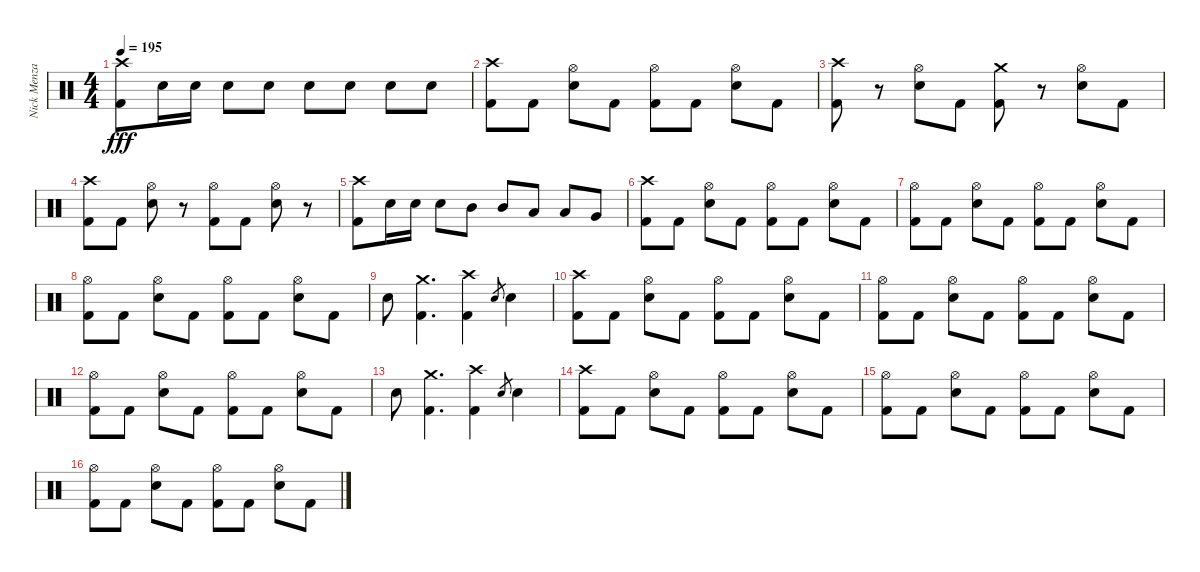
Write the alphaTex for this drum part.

\track ("Nick Menza (Drums)" "Nick Menza") {instrument percussion}
\staff {score}
\articulation defaults
\ts (4 4)
\tempo 195
\clef neutral
\ks c
("Kick (hit) 2" "Crash high (hit)").8{dy fff} "Electric Snare (hit)".16 "Electric Snare (hit)".16 "Electric Snare (hit)".8 "Electric Snare (hit)".8 "Electric Snare (hit)".8 "Electric Snare (hit)".8 "Electric Snare (hit)".8 "Electric Snare (hit)".8 |
("Kick (hit) 2" "Crash high (hit)").8 "Kick (hit) 2".8 ("Electric Snare (hit)" "Hi-Hat (open)").8 "Kick (hit) 2".8 ("Kick (hit) 2" "Hi-Hat (open)").8 "Kick (hit) 2".8 ("Electric Snare (hit)" "Hi-Hat (open)").8 "Kick (hit) 2".8 |
("Kick (hit) 2" "Crash high (hit)").8 r.8 ("Electric Snare (hit)" "Hi-Hat (open)").8 "Kick (hit) 2".8 ("Kick (hit) 2" "Crash medium (hit)").8 r.8 ("Electric Snare (hit)" "Hi-Hat (open)").8 "Kick (hit) 2".8 |
("Kick (hit) 2" "Crash high (hit)").8 "Kick (hit) 2".8 ("Electric Snare (hit)" "Hi-Hat (open)").8 r.8 ("Kick (hit) 2" "Hi-Hat (open)").8 "Kick (hit) 2".8 ("Electric Snare (hit)" "Hi-Hat (open)").8 r.8 |
("Kick (hit) 2" "Crash high (hit)").8 "Electric Snare (hit)".16 "Electric Snare (hit)".16 "Electric Snare (hit)".8 "Mid Tom (hit)".8 "Mid Tom (hit)".8 "Low Tom (hit)".8 "Low Tom (hit)".8 "Very Low Tom (hit)".8 |
("Kick (hit) 2" "Crash high (hit)").8 "Kick (hit) 2".8 ("Electric Snare (hit)" "Hi-Hat (open)").8 "Kick (hit) 2".8 ("Kick (hit) 2" "Hi-Hat (open)").8 "Kick (hit) 2".8 ("Electric Snare (hit)" "Hi-Hat (open)").8 "Kick (hit) 2".8 |
("Kick (hit) 2" "Hi-Hat (open)").8 "Kick (hit) 2".8 ("Electric Snare (hit)" "Hi-Hat (open)").8 "Kick (hit) 2".8 ("Kick (hit) 2" "Hi-Hat (open)").8 "Kick (hit) 2".8 ("Electric Snare (hit)" "Hi-Hat (open)").8 "Kick (hit) 2".8 |
("Kick (hit) 2" "Hi-Hat (open)").8 "Kick (hit) 2".8 ("Electric Snare (hit)" "Hi-Hat (open)").8 "Kick (hit) 2".8 ("Kick (hit) 2" "Hi-Hat (open)").8 "Kick (hit) 2".8 ("Electric Snare (hit)" "Hi-Hat (open)").8 "Kick (hit) 2".8 |
"Electric Snare (hit)".8 ("Kick (hit) 2" "Crash medium (hit)").4{d} ("Kick (hit) 2" "Crash high (hit)").4 "Electric Snare (hit)".8{gr} "Electric Snare (hit)".4 |
("Kick (hit) 2" "Crash high (hit)").8 "Kick (hit) 2".8 ("Electric Snare (hit)" "Hi-Hat (open)").8 "Kick (hit) 2".8 ("Kick (hit) 2" "Hi-Hat (open)").8 "Kick (hit) 2".8 ("Electric Snare (hit)" "Hi-Hat (open)").8 "Kick (hit) 2".8 |
("Kick (hit) 2" "Hi-Hat (open)").8 "Kick (hit) 2".8 ("Electric Snare (hit)" "Hi-Hat (open)").8 "Kick (hit) 2".8 ("Kick (hit) 2" "Hi-Hat (open)").8 "Kick (hit) 2".8 ("Electric Snare (hit)" "Hi-Hat (open)").8 "Kick (hit) 2".8 |
("Kick (hit) 2" "Hi-Hat (open)").8 "Kick (hit) 2".8 ("Electric Snare (hit)" "Hi-Hat (open)").8 "Kick (hit) 2".8 ("Kick (hit) 2" "Hi-Hat (open)").8 "Kick (hit) 2".8 ("Electric Snare (hit)" "Hi-Hat (open)").8 "Kick (hit) 2".8 |
"Electric Snare (hit)".8 ("Kick (hit) 2" "Crash medium (hit)").4{d} ("Kick (hit) 2" "Crash high (hit)").4 "Electric Snare (hit)".8{gr} "Electric Snare (hit)".4 |
("Kick (hit) 2" "Crash high (hit)").8 "Kick (hit) 2".8 ("Electric Snare (hit)" "Hi-Hat (open)").8 "Kick (hit) 2".8 ("Kick (hit) 2" "Hi-Hat (open)").8 "Kick (hit) 2".8 ("Electric Snare (hit)" "Hi-Hat (open)").8 "Kick (hit) 2".8 |
("Kick (hit) 2" "Hi-Hat (open)").8 "Kick (hit) 2".8 ("Electric Snare (hit)" "Hi-Hat (open)").8 "Kick (hit) 2".8 ("Kick (hit) 2" "Hi-Hat (open)").8 "Kick (hit) 2".8 ("Electric Snare (hit)" "Hi-Hat (open)").8 "Kick (hit) 2".8 |
("Kick (hit) 2" "Hi-Hat (open)").8 "Kick (hit) 2".8 ("Electric Snare (hit)" "Hi-Hat (open)").8 "Kick (hit) 2".8 ("Kick (hit) 2" "Hi-Hat (open)").8 "Kick (hit) 2".8 ("Electric Snare (hit)" "Hi-Hat (open)").8 "Kick (hit) 2".8
